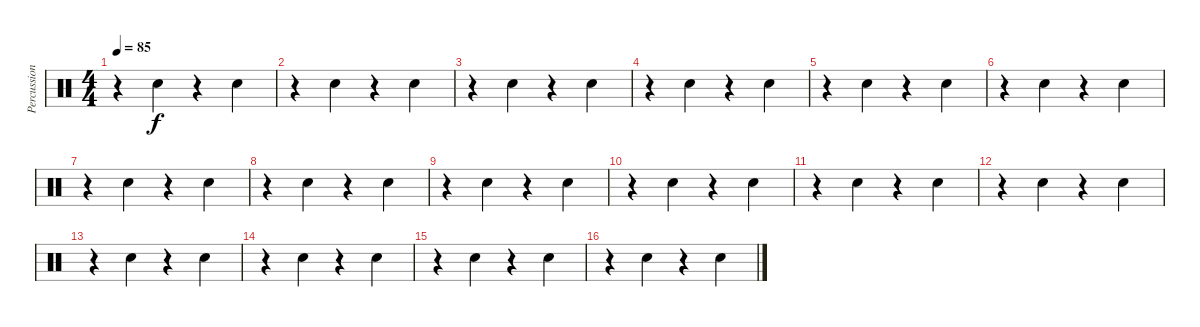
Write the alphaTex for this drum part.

\track ("Percussions" "Percussion") {instrument percussion}
\staff {score}
\articulation defaults
\ts (4 4)
\tempo 85
\clef neutral
\ks c
r.4{dy f} "Hand Clap (hit)".4 r.4 "Hand Clap (hit)".4 |
r.4 "Hand Clap (hit)".4 r.4 "Hand Clap (hit)".4 |
r.4 "Hand Clap (hit)".4 r.4 "Hand Clap (hit)".4 |
r.4 "Hand Clap (hit)".4 r.4 "Hand Clap (hit)".4 |
r.4 "Hand Clap (hit)".4 r.4 "Hand Clap (hit)".4 |
r.4 "Hand Clap (hit)".4 r.4 "Hand Clap (hit)".4 |
r.4 "Hand Clap (hit)".4 r.4 "Hand Clap (hit)".4 |
r.4 "Hand Clap (hit)".4 r.4 "Hand Clap (hit)".4 |
r.4 "Hand Clap (hit)".4 r.4 "Hand Clap (hit)".4 |
r.4 "Hand Clap (hit)".4 r.4 "Hand Clap (hit)".4 |
r.4 "Hand Clap (hit)".4 r.4 "Hand Clap (hit)".4 |
r.4 "Hand Clap (hit)".4 r.4 "Hand Clap (hit)".4 |
r.4 "Hand Clap (hit)".4 r.4 "Hand Clap (hit)".4 |
r.4 "Hand Clap (hit)".4 r.4 "Hand Clap (hit)".4 |
r.4 "Hand Clap (hit)".4 r.4 "Hand Clap (hit)".4 |
r.4 "Hand Clap (hit)".4 r.4 "Hand Clap (hit)".4
